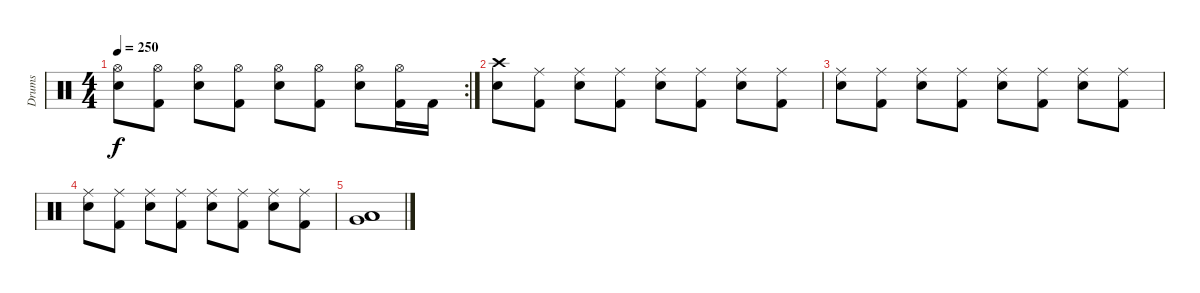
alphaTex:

\track ("Drums" "Drums") {instrument percussion}
\staff {score}
\articulation defaults
\rc 2
\ts (4 4)
\tempo 250
\clef neutral
\ks c
("Hi-Hat (open)" "Electric Snare (hit)").8{dy f} ("Hi-Hat (open)" "Kick (hit) 2").8 ("Hi-Hat (open)" "Electric Snare (hit)").8 ("Hi-Hat (open)" "Kick (hit) 2").8 ("Hi-Hat (open)" "Electric Snare (hit)").8 ("Hi-Hat (open)" "Kick (hit) 2").8 ("Hi-Hat (open)" "Electric Snare (hit)").8 ("Hi-Hat (open)" "Kick (hit) 2").16 "Kick (hit) 2".16 |
("Crash high (hit)" "Electric Snare (hit)").8 ("Ride (middle)" "Kick (hit) 2").8 ("Ride (middle)" "Electric Snare (hit)").8 ("Ride (middle)" "Kick (hit) 2").8 ("Ride (middle)" "Electric Snare (hit)").8 ("Ride (middle)" "Kick (hit) 2").8 ("Ride (middle)" "Electric Snare (hit)").8 ("Ride (middle)" "Kick (hit) 2").8 |
("Ride (middle)" "Electric Snare (hit)").8 ("Ride (middle)" "Kick (hit) 2").8 ("Ride (middle)" "Electric Snare (hit)").8 ("Ride (middle)" "Kick (hit) 2").8 ("Ride (middle)" "Electric Snare (hit)").8 ("Ride (middle)" "Kick (hit) 2").8 ("Ride (middle)" "Electric Snare (hit)").8 ("Ride (middle)" "Kick (hit) 2").8 |
("Ride (middle)" "Electric Snare (hit)").8 ("Ride (middle)" "Kick (hit) 2").8 ("Ride (middle)" "Electric Snare (hit)").8 ("Ride (middle)" "Kick (hit) 2").8 ("Ride (middle)" "Electric Snare (hit)").8 ("Ride (middle)" "Kick (hit) 2").8 ("Ride (middle)" "Electric Snare (hit)").8 ("Ride (middle)" "Kick (hit) 2").8 |
("Low Tom (hit)" "Very Low Tom (hit)" "Low Floor Tom (hit)").1
